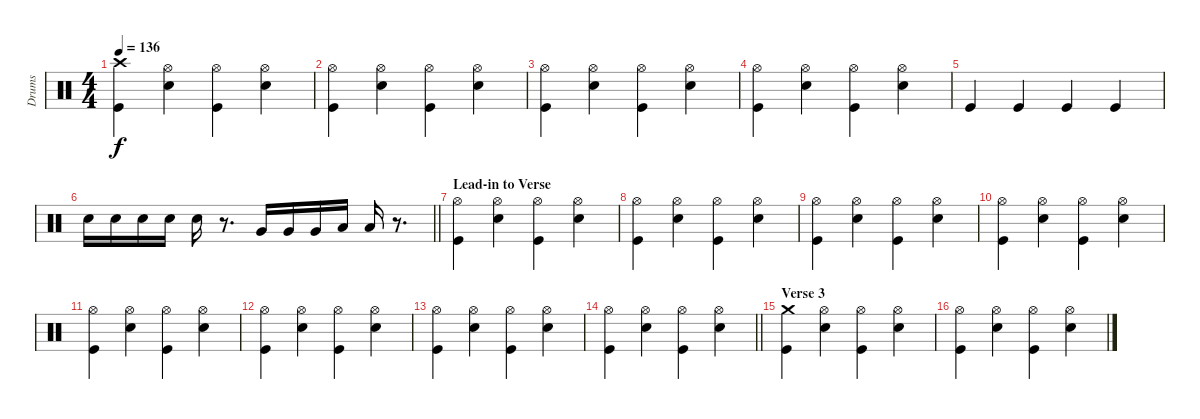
\track ("Drums" "Drums") {instrument percussion}
\staff {score}
\articulation defaults
\ts (4 4)
\tempo 136
\clef neutral
\ks c
("Kick (hit)" "Crash high (hit)").4{dy f} ("Electric Snare (hit)" "Hi-Hat (open)").4 ("Kick (hit)" "Hi-Hat (open)").4 ("Electric Snare (hit)" "Hi-Hat (open)").4 |
("Kick (hit)" "Hi-Hat (open)").4 ("Electric Snare (hit)" "Hi-Hat (open)").4 ("Kick (hit)" "Hi-Hat (open)").4 ("Electric Snare (hit)" "Hi-Hat (open)").4 |
("Kick (hit)" "Hi-Hat (open)").4 ("Electric Snare (hit)" "Hi-Hat (open)").4 ("Kick (hit)" "Hi-Hat (open)").4 ("Electric Snare (hit)" "Hi-Hat (open)").4 |
("Kick (hit)" "Hi-Hat (open)").4 ("Electric Snare (hit)" "Hi-Hat (open)").4 ("Kick (hit)" "Hi-Hat (open)").4 ("Electric Snare (hit)" "Hi-Hat (open)").4 |
"Kick (hit)".4 "Kick (hit)".4 "Kick (hit)".4 "Kick (hit)".4 |
\barLineRight lightlight "Electric Snare (hit)".16 "Electric Snare (hit)".16 "Electric Snare (hit)".16 "Electric Snare (hit)".16 "Electric Snare (hit)".16
r.8{d} "Very Low Tom (hit)".16 "Very Low Tom (hit)".16 "Very Low Tom (hit)".16 "Low Floor Tom (hit)".16 "Low Floor Tom (hit)".16 r.8{d} |
\section ("" "Lead-in to Verse")
("Kick (hit)" "Hi-Hat (open)").4 ("Electric Snare (hit)" "Hi-Hat (open)").4 ("Kick (hit)" "Hi-Hat (open)").4 ("Electric Snare (hit)" "Hi-Hat (open)").4 |
("Kick (hit)" "Hi-Hat (open)").4 ("Electric Snare (hit)" "Hi-Hat (open)").4 ("Kick (hit)" "Hi-Hat (open)").4 ("Electric Snare (hit)" "Hi-Hat (open)").4 |
("Kick (hit)" "Hi-Hat (open)").4 ("Electric Snare (hit)" "Hi-Hat (open)").4 ("Kick (hit)" "Hi-Hat (open)").4 ("Electric Snare (hit)" "Hi-Hat (open)").4 |
("Kick (hit)" "Hi-Hat (open)").4 ("Electric Snare (hit)" "Hi-Hat (open)").4 ("Kick (hit)" "Hi-Hat (open)").4 ("Electric Snare (hit)" "Hi-Hat (open)").4 |
("Kick (hit)" "Hi-Hat (open)").4 ("Electric Snare (hit)" "Hi-Hat (open)").4 ("Kick (hit)" "Hi-Hat (open)").4 ("Electric Snare (hit)" "Hi-Hat (open)").4 |
("Kick (hit)" "Hi-Hat (open)").4 ("Electric Snare (hit)" "Hi-Hat (open)").4 ("Kick (hit)" "Hi-Hat (open)").4 ("Electric Snare (hit)" "Hi-Hat (open)").4 |
("Kick (hit)" "Hi-Hat (open)").4 ("Electric Snare (hit)" "Hi-Hat (open)").4 ("Kick (hit)" "Hi-Hat (open)").4 ("Electric Snare (hit)" "Hi-Hat (open)").4 |
\barLineRight lightlight
("Kick (hit)" "Hi-Hat (open)").4 ("Electric Snare (hit)" "Hi-Hat (open)").4 ("Kick (hit)" "Hi-Hat (open)").4 ("Electric Snare (hit)" "Hi-Hat (open)").4 |
\section ("" "Verse 3")
("Kick (hit)" "Crash medium (hit)").4 ("Electric Snare (hit)" "Hi-Hat (open)").4 ("Kick (hit)" "Hi-Hat (open)").4 ("Electric Snare (hit)" "Hi-Hat (open)").4 |
("Kick (hit)" "Hi-Hat (open)").4 ("Electric Snare (hit)" "Hi-Hat (open)").4 ("Kick (hit)" "Hi-Hat (open)").4 ("Electric Snare (hit)" "Hi-Hat (open)").4
